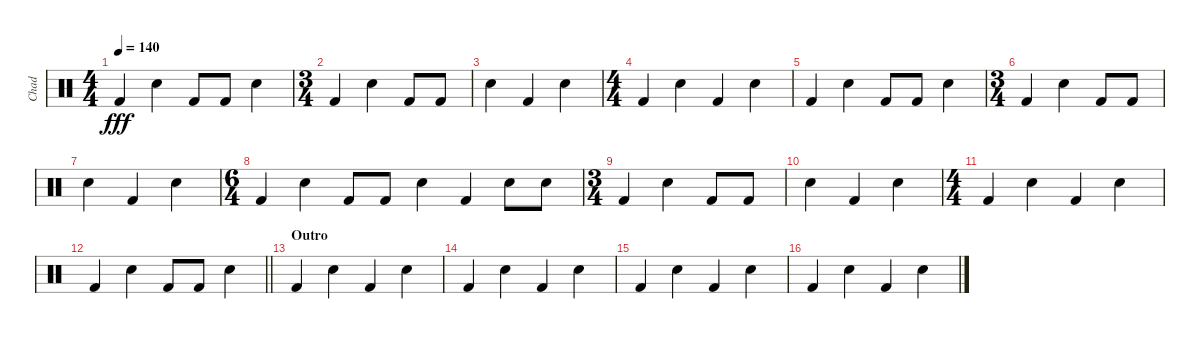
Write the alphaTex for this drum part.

\track ("Chad" "Chad") {instrument percussion}
\staff {score}
\articulation defaults
\ts (4 4)
\tempo 140
\clef neutral
\ks c "Kick (hit) 2".4{dy fff} "Electric Snare (hit)".4 "Kick (hit) 2".8 "Kick (hit) 2".8 "Electric Snare (hit)".4
|
\ts (3 4)
"Kick (hit) 2".4 "Electric Snare (hit)".4 "Kick (hit) 2".8 "Kick (hit) 2".8 |
"Electric Snare (hit)".4 "Kick (hit) 2".4 "Electric Snare (hit)".4 |
\ts (4 4)
"Kick (hit) 2".4 "Electric Snare (hit)".4 "Kick (hit) 2".4 "Electric Snare (hit)".4 |
"Kick (hit) 2".4 "Electric Snare (hit)".4 "Kick (hit) 2".8 "Kick (hit) 2".8 "Electric Snare (hit)".4 |
\ts (3 4)
"Kick (hit) 2".4 "Electric Snare (hit)".4 "Kick (hit) 2".8 "Kick (hit) 2".8 |
"Electric Snare (hit)".4 "Kick (hit) 2".4 "Electric Snare (hit)".4 |
\ts (6 4)
"Kick (hit) 2".4 "Electric Snare (hit)".4 "Kick (hit) 2".8 "Kick (hit) 2".8 "Electric Snare (hit)".4 "Kick (hit) 2".4 "Electric Snare (hit)".8 "Electric Snare (hit)".8 |
\ts (3 4)
"Kick (hit) 2".4 "Electric Snare (hit)".4 "Kick (hit) 2".8 "Kick (hit) 2".8 |
"Electric Snare (hit)".4 "Kick (hit) 2".4 "Electric Snare (hit)".4 |
\ts (4 4)
"Kick (hit) 2".4 "Electric Snare (hit)".4 "Kick (hit) 2".4 "Electric Snare (hit)".4 |
\barLineRight lightlight "Kick (hit) 2".4 "Electric Snare (hit)".4 "Kick (hit) 2".8 "Kick (hit) 2".8 "Electric Snare (hit)".4
|
\section ("" "Outro")
"Kick (hit) 2".4 "Electric Snare (hit)".4 "Kick (hit) 2".4 "Electric Snare (hit)".4 |
"Kick (hit) 2".4 "Electric Snare (hit)".4 "Kick (hit) 2".4 "Electric Snare (hit)".4 |
"Kick (hit) 2".4 "Electric Snare (hit)".4 "Kick (hit) 2".4 "Electric Snare (hit)".4 |
"Kick (hit) 2".4 "Electric Snare (hit)".4 "Kick (hit) 2".4 "Electric Snare (hit)".4
